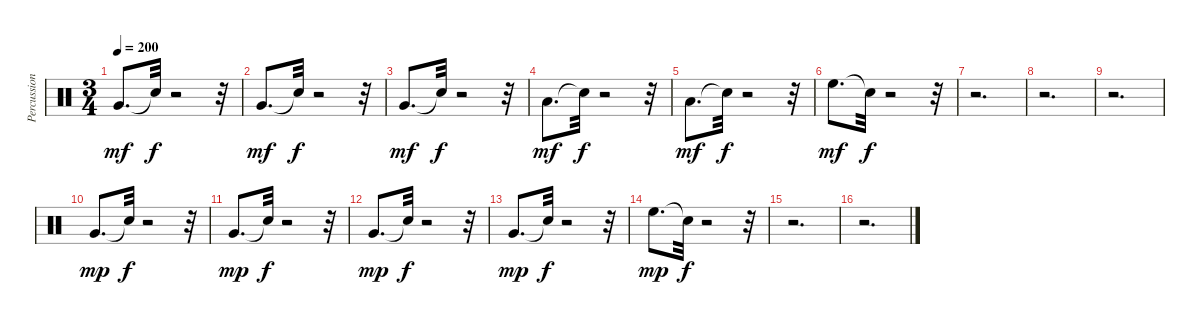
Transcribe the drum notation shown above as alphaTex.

\track ("Percussion." "Percussion") {instrument percussion}
\staff {score}
\articulation defaults
\ts (3 4)
\tempo 200
\clef neutral
\ks c "Very Low Tom (hit)".8{d dy mf} "Snare (hit)"{t}.32{dy f}
r.2 r.32 |
"Very Low Tom (hit)".8{d dy mf} "Snare (hit)"{t}.32{dy f} r.2 r.32 |
"Very Low Tom (hit)".8{d dy mf} "Snare (hit)"{t}.32{dy f} r.2 r.32 |
"Low Tom (hit)".8{d dy mf} "Snare (hit)"{t}.32{dy f} r.2 r.32 |
"Low Tom (hit)".8{d dy mf} "Snare (hit)"{t}.32{dy f} r.2 r.32 |
"High Floor Tom (hit)".8{d dy mf} "Snare (hit)"{t}.32{dy f} r.2 r.32 |
r.2{d} |
r.2{d} |
r.2{d} |
"Very Low Tom (hit)".8{d dy mp} "Snare (hit)"{t}.32{dy f} r.2 r.32 |
"Very Low Tom (hit)".8{d dy mp} "Snare (hit)"{t}.32{dy f} r.2 r.32 |
"Very Low Tom (hit)".8{d dy mp} "Snare (hit)"{t}.32{dy f} r.2 r.32 |
"Very Low Tom (hit)".8{d dy mp} "Snare (hit)"{t}.32{dy f} r.2 r.32 |
"High Floor Tom (hit)".8{d dy mp} "Snare (hit)"{t}.32{dy f} r.2 r.32 |
r.2{d} |
r.2{d}
